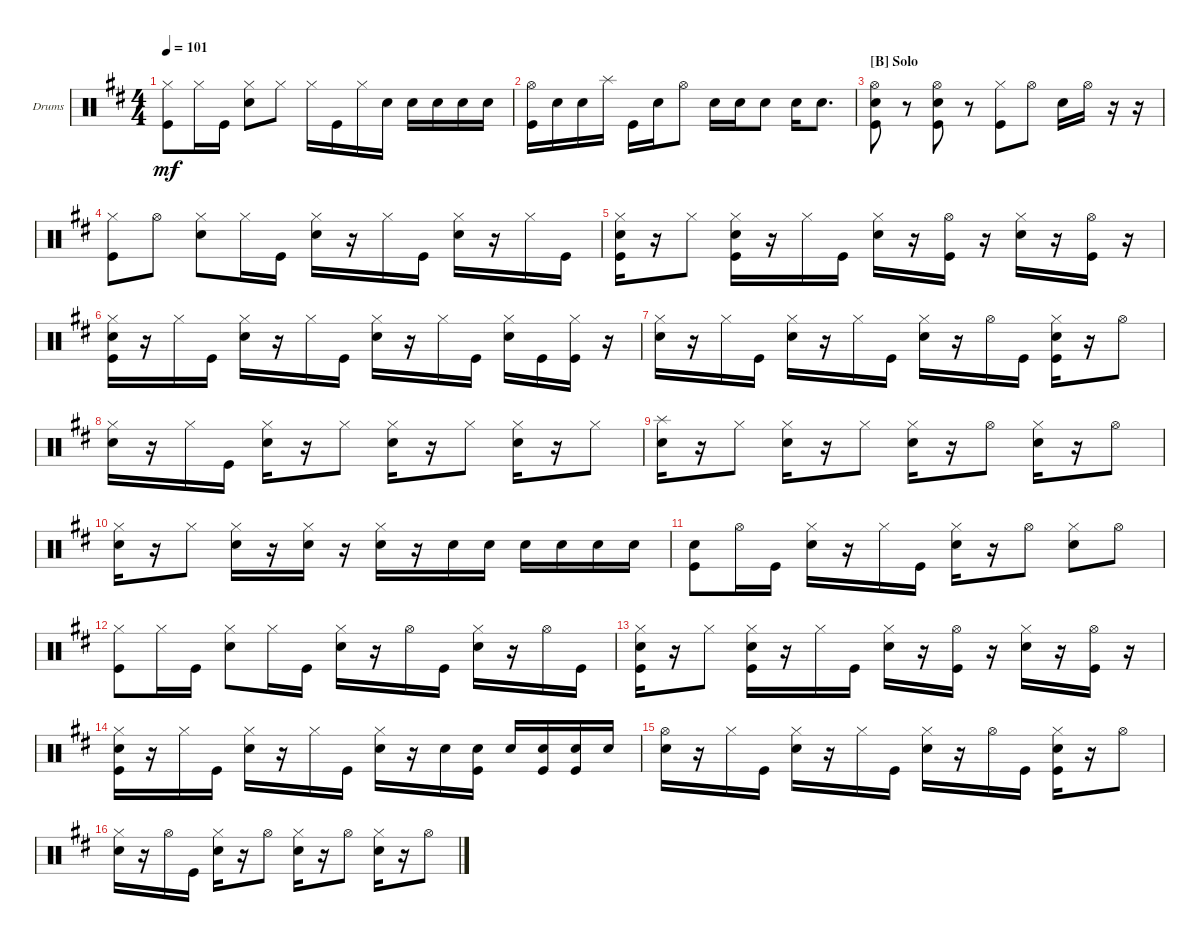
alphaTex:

\bracketExtendMode groupsimilarinstruments
\firstSystemTrackNameOrientation horizontal
\otherSystemsTrackNameOrientation horizontal
\track ("Drumkit" "Drums") {instrument percussion}
\staff {score}
\articulation defaults
\ts (4 4)
\tempo 101
\clef neutral
\scale
0.333333
\ks d
("Kick (hit)" "Hi-Hat (closed)").8{dy mf} "Hi-Hat (closed)".16 "Kick (hit)".16 ("Snare (hit) 2" "Hi-Hat (closed)").8 "Hi-Hat (closed)".8 "Hi-Hat (closed)".16 "Kick (hit)".16 "Hi-Hat (closed)".16 "Snare (hit) 2".16 "Snare (hit) 2".16 "Snare (hit) 2".16 "Snare (hit) 2".16 "Snare (hit) 2".16 |
\scale
0.333333 ("Kick (hit)" "Hi-Hat (open)").16 "Snare (hit) 2".16 "Snare (hit) 2".16 "Splash (hit)".16 "Kick (hit)".16 "Snare (hit) 2".16 "Hi-Hat (open)".8 "Snare (hit) 2".16 "Snare (hit) 2".16 "Snare (hit) 2".8 "Snare (hit) 2".16 "Snare (hit) 2".8{d} |
\section ("B" "Solo")
\scale
0.333333 ("Kick (hit)" "Hi-Hat (open)" "Snare (hit) 2").8 r.8 ("Hi-Hat (open)" "Kick (hit)" "Snare (hit) 2").8 r.8 ("Kick (hit)" "Hi-Hat (closed)").8 "Hi-Hat (open)".8 "Snare (hit) 2".16 "Hi-Hat (open)".16 r.16 r.16 |
\scale
0.333333 ("Kick (hit)" "Hi-Hat (closed)").8 "Hi-Hat (open)".8 ("Snare (hit) 2" "Hi-Hat (closed)").8 "Hi-Hat (closed)".16 "Kick (hit)".16 ("Snare (hit) 2" "Hi-Hat (closed)").16 r.16 "Hi-Hat (closed)".16 "Kick (hit)".16 ("Snare (hit) 2" "Hi-Hat (closed)").16 r.16 "Hi-Hat (closed)".16 "Kick (hit)".16 |
\scale
0.333333 ("Snare (hit) 2" "Kick (hit)" "Hi-Hat (closed)").16 r.16 "Hi-Hat (closed)".8 ("Kick (hit)" "Snare (hit) 2" "Hi-Hat (closed)").16 r.16 "Hi-Hat (closed)".16 "Kick (hit)".16 ("Snare (hit) 2" "Hi-Hat (closed)").16 r.16 ("Kick (hit)" "Hi-Hat (open)").16 r.16 ("Snare (hit) 2" "Hi-Hat (closed)").16 r.16 ("Kick (hit)" "Hi-Hat (open)").16 r.16 |
\scale
0.333333 ("Kick (hit)" "Snare (hit) 2" "Hi-Hat (closed)").16 r.16 "Hi-Hat (closed)".16 "Kick (hit)".16 ("Snare (hit) 2" "Hi-Hat (closed)").16 r.16 "Hi-Hat (closed)".16 "Kick (hit)".16 ("Snare (hit) 2" "Hi-Hat (closed)").16 r.16 "Hi-Hat (closed)".16 "Kick (hit)".16 ("Snare (hit) 2" "Hi-Hat (closed)").16 "Kick (hit)".16 ("Kick (hit)" "Hi-Hat (closed)").16 r.16 |
\scale
0.333333 ("Snare (hit) 2" "Hi-Hat (closed)").16 r.16 "Hi-Hat (closed)".16 "Kick (hit)".16 ("Snare (hit) 2" "Hi-Hat (closed)").16 r.16 "Hi-Hat (closed)".16 "Kick (hit)".16 ("Snare (hit) 2" "Hi-Hat (closed)").16 r.16 "Hi-Hat (open)".16 "Kick (hit)".16 ("Snare (hit) 2" "Kick (hit)" "Hi-Hat (closed)").16 r.16 "Hi-Hat (open)".8 |
\scale
0.333333 ("Snare (hit) 2" "Hi-Hat (closed)").16 r.16 "Hi-Hat (closed)".16 "Kick (hit)".16 ("Snare (hit) 2" "Hi-Hat (closed)").16 r.16 "Hi-Hat (closed)".8 ("Snare (hit) 2" "Hi-Hat (closed)").16 r.16 "Hi-Hat (closed)".8 ("Snare (hit) 2" "Hi-Hat (closed)").16 r.16 "Hi-Hat (closed)".8 |
\scale
0.333333 ("Splash (hit)" "Snare (hit) 2").16 r.16 "Hi-Hat (closed)".8 ("Snare (hit) 2" "Hi-Hat (closed)").16 r.16 "Hi-Hat (closed)".8 ("Snare (hit) 2" "Hi-Hat (closed)").16 r.16 "Hi-Hat (open)".8 ("Snare (hit) 2" "Hi-Hat (closed)").16 r.16 "Hi-Hat (open)".8 |
\scale
0.333333 ("Snare (hit) 2" "Hi-Hat (closed)").16 r.16 "Hi-Hat (closed)".8 ("Snare (hit) 2" "Hi-Hat (closed)").16 r.16 ("Snare (hit) 2" "Hi-Hat (closed)").16 r.16 ("Snare (hit) 2" "Hi-Hat (closed)").16 r.16 "Snare (hit) 2".16 "Snare (hit) 2".16 "Snare (hit) 2".16 "Snare (hit) 2".16 "Snare (hit) 2".16 "Snare (hit) 2".16 |
\scale
0.333333 ("Kick (hit)" "Snare (hit) 2").8 "Hi-Hat (open)".16 "Kick (hit)".16 ("Snare (hit) 2" "Hi-Hat (closed)").16 r.16 "Hi-Hat (closed)".16 "Kick (hit)".16 ("Snare (hit) 2" "Hi-Hat (closed)").16 r.16 "Hi-Hat (open)".8 ("Snare (hit) 2" "Hi-Hat (closed)").8 "Hi-Hat (open)".8 |
\scale
0.333333 ("Kick (hit)" "Hi-Hat (closed)").8 "Hi-Hat (closed)".16 "Kick (hit)".16 ("Snare (hit) 2" "Hi-Hat (closed)").8 "Hi-Hat (closed)".16 "Kick (hit)".16 ("Snare (hit) 2" "Hi-Hat (closed)").16 r.16 "Hi-Hat (open)".16 "Kick (hit)".16 ("Snare (hit) 2" "Hi-Hat (closed)").16 r.16 "Hi-Hat (open)".16 "Kick (hit)".16 |
\scale
0.333333 ("Snare (hit) 2" "Kick (hit)" "Hi-Hat (closed)").16 r.16 "Hi-Hat (closed)".8 ("Kick (hit)" "Snare (hit) 2" "Hi-Hat (closed)").16 r.16 "Hi-Hat (closed)".16 "Kick (hit)".16 ("Snare (hit) 2" "Hi-Hat (closed)").16 r.16 ("Kick (hit)" "Hi-Hat (open)").16 r.16 ("Snare (hit) 2" "Hi-Hat (closed)").16 r.16 ("Kick (hit)" "Hi-Hat (open)").16 r.16 |
\scale
0.333333 ("Kick (hit)" "Snare (hit) 2" "Hi-Hat (closed)").16 r.16 "Hi-Hat (closed)".16 "Kick (hit)".16 ("Snare (hit) 2" "Hi-Hat (closed)").16 r.16 "Hi-Hat (closed)".16 "Kick (hit)".16 ("Snare (hit) 2" "Hi-Hat (closed)").16 r.16 "Snare (hit) 2".16 ("Kick (hit)" "Snare (hit) 2").16 "Snare (hit) 2".16 ("Snare (hit) 2" "Kick (hit)").16 ("Snare (hit) 2" "Kick (hit)").16 "Snare (hit) 2".16 |
\scale
0.333333 ("Snare (hit) 2" "Hi-Hat (open)").16 r.16 "Hi-Hat (closed)".16 "Kick (hit)".16 ("Snare (hit) 2" "Hi-Hat (closed)").16 r.16 "Hi-Hat (closed)".16 "Kick (hit)".16 ("Snare (hit) 2" "Hi-Hat (closed)").16 r.16 "Hi-Hat (open)".16 "Kick (hit)".16 ("Snare (hit) 2" "Kick (hit)" "Hi-Hat (closed)").16 r.16 "Hi-Hat (open)".8 |
\scale
0.333333 ("Snare (hit) 2" "Hi-Hat (closed)").16 r.16 "Hi-Hat (open)".16 "Kick (hit)".16 ("Snare (hit) 2" "Hi-Hat (closed)").16 r.16 "Hi-Hat (open)".8 ("Snare (hit) 2" "Hi-Hat (closed)").16 r.16 "Hi-Hat (open)".8 ("Snare (hit) 2" "Hi-Hat (closed)").16 r.16 "Hi-Hat (open)".8
